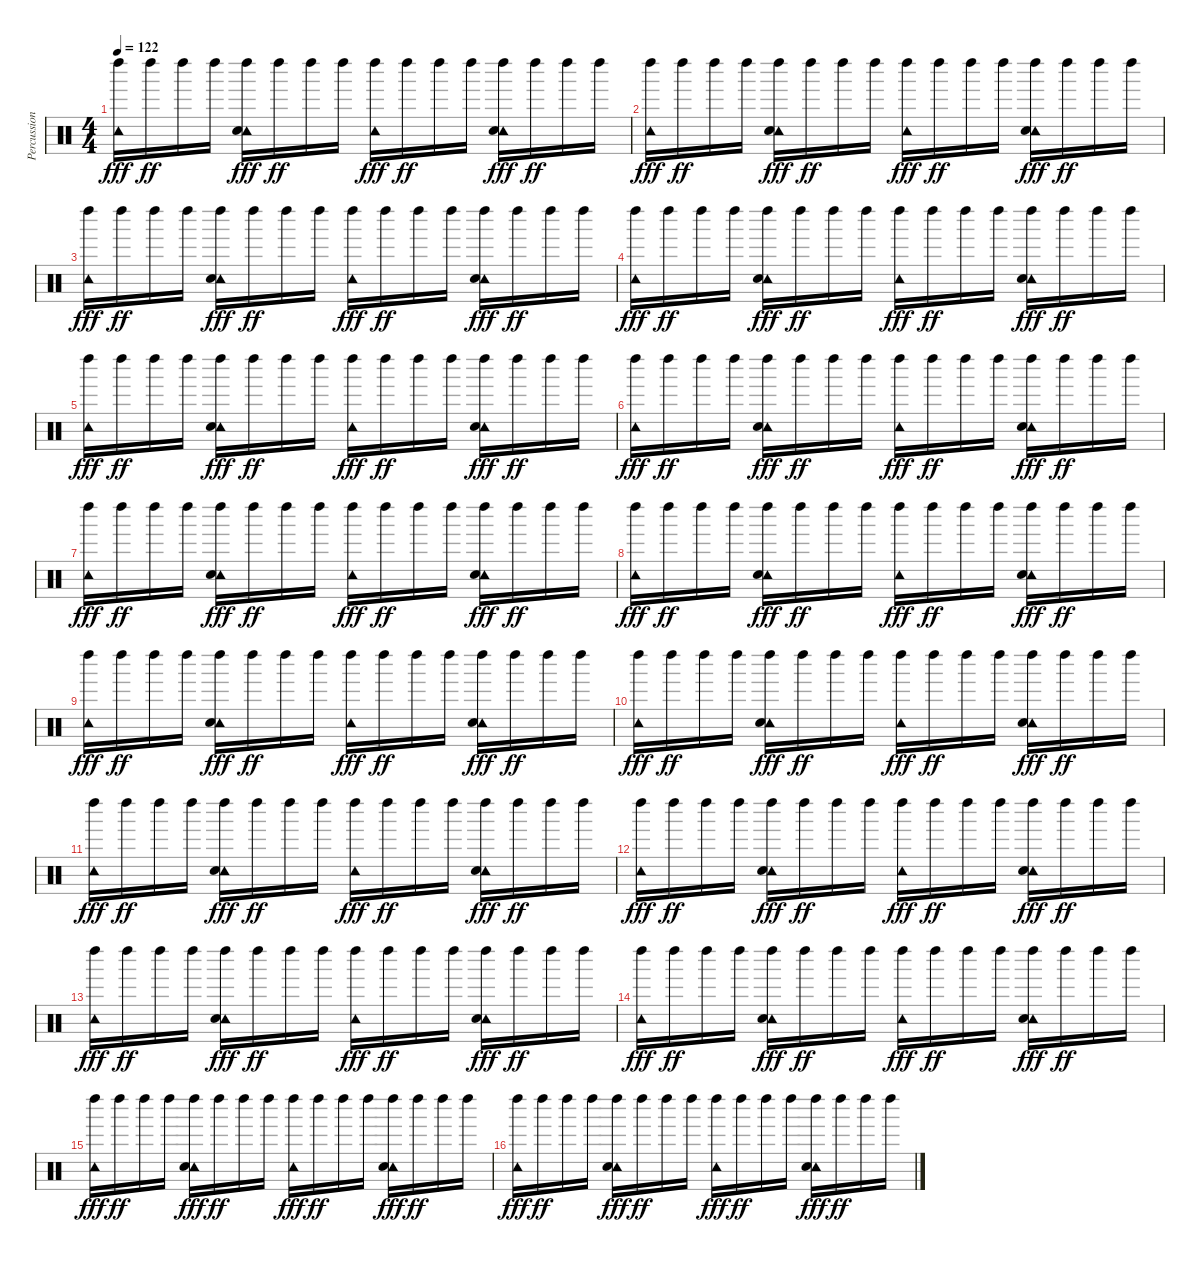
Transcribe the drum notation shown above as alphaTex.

\track ("Percussion" "Percussion") {instrument percussion}
\staff {score}
\articulation defaults
\ts (4 4)
\tempo 122
\clef neutral
\ks c
("Left Maraca (hit)" "Tambourine (hit)").16{dy fff} "Left Maraca (hit)".16{dy ff} "Left Maraca (hit)".16 "Left Maraca (hit)".16 ("Left Maraca (hit)" "Tambourine (hit)" "Hand Clap (hit)").16{dy fff} "Left Maraca (hit)".16{dy ff} "Left Maraca (hit)".16 "Left Maraca (hit)".16 ("Left Maraca (hit)" "Tambourine (hit)").16{dy fff} "Left Maraca (hit)".16{dy ff} "Left Maraca (hit)".16 "Left Maraca (hit)".16 ("Left Maraca (hit)" "Tambourine (hit)" "Hand Clap (hit)").16{dy fff} "Left Maraca (hit)".16{dy ff} "Left Maraca (hit)".16 "Left Maraca (hit)".16 |
("Left Maraca (hit)" "Tambourine (hit)").16{dy fff} "Left Maraca (hit)".16{dy ff} "Left Maraca (hit)".16 "Left Maraca (hit)".16 ("Left Maraca (hit)" "Tambourine (hit)" "Hand Clap (hit)").16{dy fff} "Left Maraca (hit)".16{dy ff} "Left Maraca (hit)".16 "Left Maraca (hit)".16 ("Left Maraca (hit)" "Tambourine (hit)").16{dy fff} "Left Maraca (hit)".16{dy ff} "Left Maraca (hit)".16 "Left Maraca (hit)".16 ("Left Maraca (hit)" "Tambourine (hit)" "Hand Clap (hit)").16{dy fff} "Left Maraca (hit)".16{dy ff} "Left Maraca (hit)".16 "Left Maraca (hit)".16 |
("Left Maraca (hit)" "Tambourine (hit)").16{dy fff} "Left Maraca (hit)".16{dy ff} "Left Maraca (hit)".16 "Left Maraca (hit)".16 ("Left Maraca (hit)" "Tambourine (hit)" "Hand Clap (hit)").16{dy fff} "Left Maraca (hit)".16{dy ff} "Left Maraca (hit)".16 "Left Maraca (hit)".16 ("Left Maraca (hit)" "Tambourine (hit)").16{dy fff} "Left Maraca (hit)".16{dy ff} "Left Maraca (hit)".16 "Left Maraca (hit)".16 ("Left Maraca (hit)" "Tambourine (hit)" "Hand Clap (hit)").16{dy fff} "Left Maraca (hit)".16{dy ff} "Left Maraca (hit)".16 "Left Maraca (hit)".16 |
("Left Maraca (hit)" "Tambourine (hit)").16{dy fff} "Left Maraca (hit)".16{dy ff} "Left Maraca (hit)".16 "Left Maraca (hit)".16 ("Left Maraca (hit)" "Tambourine (hit)" "Hand Clap (hit)").16{dy fff} "Left Maraca (hit)".16{dy ff} "Left Maraca (hit)".16 "Left Maraca (hit)".16 ("Left Maraca (hit)" "Tambourine (hit)").16{dy fff} "Left Maraca (hit)".16{dy ff} "Left Maraca (hit)".16 "Left Maraca (hit)".16 ("Left Maraca (hit)" "Tambourine (hit)" "Hand Clap (hit)").16{dy fff} "Left Maraca (hit)".16{dy ff} "Left Maraca (hit)".16 "Left Maraca (hit)".16 |
("Left Maraca (hit)" "Tambourine (hit)").16{dy fff} "Left Maraca (hit)".16{dy ff} "Left Maraca (hit)".16 "Left Maraca (hit)".16 ("Left Maraca (hit)" "Tambourine (hit)" "Hand Clap (hit)").16{dy fff} "Left Maraca (hit)".16{dy ff} "Left Maraca (hit)".16 "Left Maraca (hit)".16 ("Left Maraca (hit)" "Tambourine (hit)").16{dy fff} "Left Maraca (hit)".16{dy ff} "Left Maraca (hit)".16 "Left Maraca (hit)".16 ("Left Maraca (hit)" "Tambourine (hit)" "Hand Clap (hit)").16{dy fff} "Left Maraca (hit)".16{dy ff} "Left Maraca (hit)".16 "Left Maraca (hit)".16 |
("Left Maraca (hit)" "Tambourine (hit)").16{dy fff} "Left Maraca (hit)".16{dy ff} "Left Maraca (hit)".16 "Left Maraca (hit)".16 ("Left Maraca (hit)" "Tambourine (hit)" "Hand Clap (hit)").16{dy fff} "Left Maraca (hit)".16{dy ff} "Left Maraca (hit)".16 "Left Maraca (hit)".16 ("Left Maraca (hit)" "Tambourine (hit)").16{dy fff} "Left Maraca (hit)".16{dy ff} "Left Maraca (hit)".16 "Left Maraca (hit)".16 ("Left Maraca (hit)" "Tambourine (hit)" "Hand Clap (hit)").16{dy fff} "Left Maraca (hit)".16{dy ff} "Left Maraca (hit)".16 "Left Maraca (hit)".16 |
("Left Maraca (hit)" "Tambourine (hit)").16{dy fff} "Left Maraca (hit)".16{dy ff} "Left Maraca (hit)".16 "Left Maraca (hit)".16 ("Left Maraca (hit)" "Tambourine (hit)" "Hand Clap (hit)").16{dy fff} "Left Maraca (hit)".16{dy ff} "Left Maraca (hit)".16 "Left Maraca (hit)".16 ("Left Maraca (hit)" "Tambourine (hit)").16{dy fff} "Left Maraca (hit)".16{dy ff} "Left Maraca (hit)".16 "Left Maraca (hit)".16 ("Left Maraca (hit)" "Tambourine (hit)" "Hand Clap (hit)").16{dy fff} "Left Maraca (hit)".16{dy ff} "Left Maraca (hit)".16 "Left Maraca (hit)".16 |
("Left Maraca (hit)" "Tambourine (hit)").16{dy fff} "Left Maraca (hit)".16{dy ff} "Left Maraca (hit)".16 "Left Maraca (hit)".16 ("Left Maraca (hit)" "Tambourine (hit)" "Hand Clap (hit)").16{dy fff} "Left Maraca (hit)".16{dy ff} "Left Maraca (hit)".16 "Left Maraca (hit)".16 ("Left Maraca (hit)" "Tambourine (hit)").16{dy fff} "Left Maraca (hit)".16{dy ff} "Left Maraca (hit)".16 "Left Maraca (hit)".16 ("Left Maraca (hit)" "Tambourine (hit)" "Hand Clap (hit)").16{dy fff} "Left Maraca (hit)".16{dy ff} "Left Maraca (hit)".16 "Left Maraca (hit)".16 |
("Left Maraca (hit)" "Tambourine (hit)").16{dy fff} "Left Maraca (hit)".16{dy ff} "Left Maraca (hit)".16 "Left Maraca (hit)".16 ("Left Maraca (hit)" "Tambourine (hit)" "Hand Clap (hit)").16{dy fff} "Left Maraca (hit)".16{dy ff} "Left Maraca (hit)".16 "Left Maraca (hit)".16 ("Left Maraca (hit)" "Tambourine (hit)").16{dy fff} "Left Maraca (hit)".16{dy ff} "Left Maraca (hit)".16 "Left Maraca (hit)".16 ("Left Maraca (hit)" "Tambourine (hit)" "Hand Clap (hit)").16{dy fff} "Left Maraca (hit)".16{dy ff} "Left Maraca (hit)".16 "Left Maraca (hit)".16 |
("Left Maraca (hit)" "Tambourine (hit)").16{dy fff} "Left Maraca (hit)".16{dy ff} "Left Maraca (hit)".16 "Left Maraca (hit)".16 ("Left Maraca (hit)" "Tambourine (hit)" "Hand Clap (hit)").16{dy fff} "Left Maraca (hit)".16{dy ff} "Left Maraca (hit)".16 "Left Maraca (hit)".16 ("Left Maraca (hit)" "Tambourine (hit)").16{dy fff} "Left Maraca (hit)".16{dy ff} "Left Maraca (hit)".16 "Left Maraca (hit)".16 ("Left Maraca (hit)" "Tambourine (hit)" "Hand Clap (hit)").16{dy fff} "Left Maraca (hit)".16{dy ff} "Left Maraca (hit)".16 "Left Maraca (hit)".16 |
("Left Maraca (hit)" "Tambourine (hit)").16{dy fff} "Left Maraca (hit)".16{dy ff} "Left Maraca (hit)".16 "Left Maraca (hit)".16 ("Left Maraca (hit)" "Tambourine (hit)" "Hand Clap (hit)").16{dy fff} "Left Maraca (hit)".16{dy ff} "Left Maraca (hit)".16 "Left Maraca (hit)".16 ("Left Maraca (hit)" "Tambourine (hit)").16{dy fff} "Left Maraca (hit)".16{dy ff} "Left Maraca (hit)".16 "Left Maraca (hit)".16 ("Left Maraca (hit)" "Tambourine (hit)" "Hand Clap (hit)").16{dy fff} "Left Maraca (hit)".16{dy ff} "Left Maraca (hit)".16 "Left Maraca (hit)".16 |
("Left Maraca (hit)" "Tambourine (hit)").16{dy fff} "Left Maraca (hit)".16{dy ff} "Left Maraca (hit)".16 "Left Maraca (hit)".16 ("Left Maraca (hit)" "Tambourine (hit)" "Hand Clap (hit)").16{dy fff} "Left Maraca (hit)".16{dy ff} "Left Maraca (hit)".16 "Left Maraca (hit)".16 ("Left Maraca (hit)" "Tambourine (hit)").16{dy fff} "Left Maraca (hit)".16{dy ff} "Left Maraca (hit)".16 "Left Maraca (hit)".16 ("Left Maraca (hit)" "Tambourine (hit)" "Hand Clap (hit)").16{dy fff} "Left Maraca (hit)".16{dy ff} "Left Maraca (hit)".16 "Left Maraca (hit)".16 |
("Left Maraca (hit)" "Tambourine (hit)").16{dy fff} "Left Maraca (hit)".16{dy ff} "Left Maraca (hit)".16 "Left Maraca (hit)".16 ("Left Maraca (hit)" "Tambourine (hit)" "Hand Clap (hit)").16{dy fff} "Left Maraca (hit)".16{dy ff} "Left Maraca (hit)".16 "Left Maraca (hit)".16 ("Left Maraca (hit)" "Tambourine (hit)").16{dy fff} "Left Maraca (hit)".16{dy ff} "Left Maraca (hit)".16 "Left Maraca (hit)".16 ("Left Maraca (hit)" "Tambourine (hit)" "Hand Clap (hit)").16{dy fff} "Left Maraca (hit)".16{dy ff} "Left Maraca (hit)".16 "Left Maraca (hit)".16 |
("Left Maraca (hit)" "Tambourine (hit)").16{dy fff} "Left Maraca (hit)".16{dy ff} "Left Maraca (hit)".16 "Left Maraca (hit)".16 ("Left Maraca (hit)" "Tambourine (hit)" "Hand Clap (hit)").16{dy fff} "Left Maraca (hit)".16{dy ff} "Left Maraca (hit)".16 "Left Maraca (hit)".16 ("Left Maraca (hit)" "Tambourine (hit)").16{dy fff} "Left Maraca (hit)".16{dy ff} "Left Maraca (hit)".16 "Left Maraca (hit)".16 ("Left Maraca (hit)" "Tambourine (hit)" "Hand Clap (hit)").16{dy fff} "Left Maraca (hit)".16{dy ff} "Left Maraca (hit)".16 "Left Maraca (hit)".16 |
("Left Maraca (hit)" "Tambourine (hit)").16{dy fff} "Left Maraca (hit)".16{dy ff} "Left Maraca (hit)".16 "Left Maraca (hit)".16 ("Left Maraca (hit)" "Tambourine (hit)" "Hand Clap (hit)").16{dy fff} "Left Maraca (hit)".16{dy ff} "Left Maraca (hit)".16 "Left Maraca (hit)".16 ("Left Maraca (hit)" "Tambourine (hit)").16{dy fff} "Left Maraca (hit)".16{dy ff} "Left Maraca (hit)".16 "Left Maraca (hit)".16 ("Left Maraca (hit)" "Tambourine (hit)" "Hand Clap (hit)").16{dy fff} "Left Maraca (hit)".16{dy ff} "Left Maraca (hit)".16 "Left Maraca (hit)".16 |
("Left Maraca (hit)" "Tambourine (hit)").16{dy fff} "Left Maraca (hit)".16{dy ff} "Left Maraca (hit)".16 "Left Maraca (hit)".16 ("Left Maraca (hit)" "Tambourine (hit)" "Hand Clap (hit)").16{dy fff} "Left Maraca (hit)".16{dy ff} "Left Maraca (hit)".16 "Left Maraca (hit)".16 ("Left Maraca (hit)" "Tambourine (hit)").16{dy fff} "Left Maraca (hit)".16{dy ff} "Left Maraca (hit)".16 "Left Maraca (hit)".16 ("Left Maraca (hit)" "Tambourine (hit)" "Hand Clap (hit)").16{dy fff} "Left Maraca (hit)".16{dy ff} "Left Maraca (hit)".16 "Left Maraca (hit)".16
